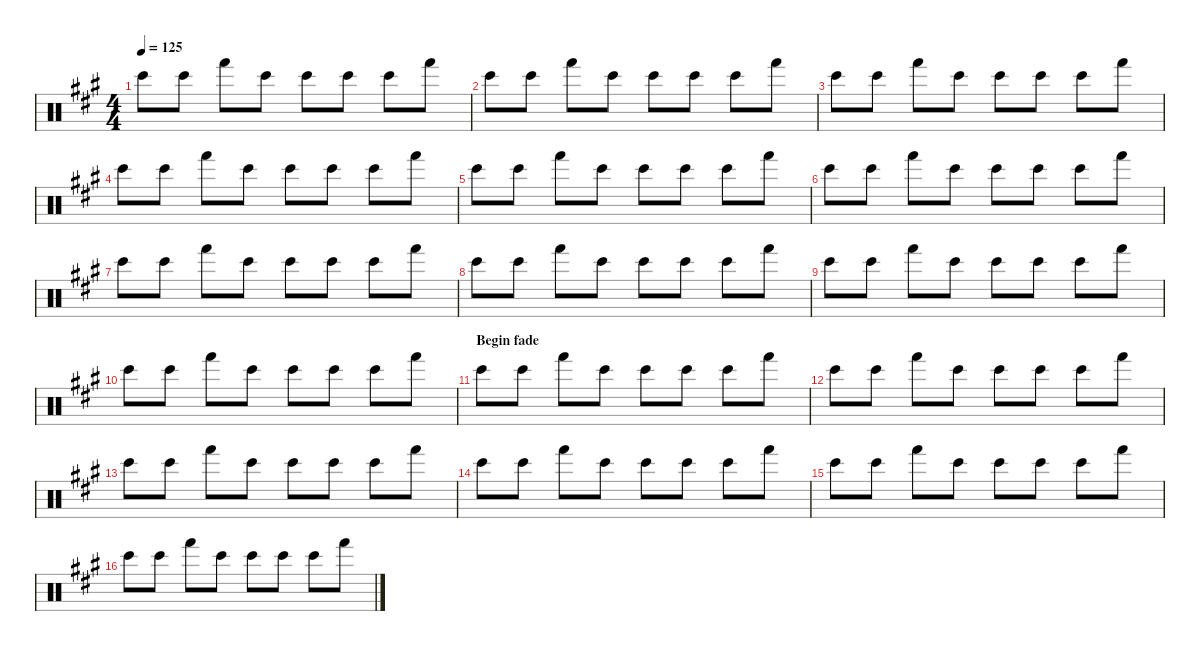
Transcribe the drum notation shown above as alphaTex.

\defaultSystemsLayout 4
\hideDynamics
\bracketExtendMode nobrackets
\singleTrackTrackNamePolicy hidden
\multiTrackTrackNamePolicy hidden
\otherSystemsTrackNameOrientation horizontal
\track ("Percussion" "drm.") {instrument percussion}
\staff {score}
\articulation defaults
\ts (4 4)
\tempo 125
\clef neutral
\ks a "Bongo High (hit)"{acc forcenatural}.8{dy f beam Down} "Bongo High (hit)"{acc forcenatural}.8{beam Down} "Hand (hit)"{acc forcenatural}.8{beam Down} "Bongo High (hit)"{acc forcenatural}.8{beam Down} "Bongo High (hit)"{acc forcenatural}.8{beam Down} "Bongo High (hit)"{acc forcenatural}.8{beam Down} "Bongo High (hit)"{acc forcenatural}.8{beam Down} "Hand (hit)"{acc forcenatural}.8{beam Down}
|
"Bongo High (hit)"{acc forcenatural}.8{beam Down} "Bongo High (hit)"{acc forcenatural}.8{beam Down} "Hand (hit)"{acc forcenatural}.8{beam Down} "Bongo High (hit)"{acc forcenatural}.8{beam Down} "Bongo High (hit)"{acc forcenatural}.8{beam Down} "Bongo High (hit)"{acc forcenatural}.8{beam Down} "Bongo High (hit)"{acc forcenatural}.8{beam Down} "Hand (hit)"{acc forcenatural}.8{beam Down} |
"Bongo High (hit)"{acc forcenatural}.8{beam Down} "Bongo High (hit)"{acc forcenatural}.8{beam Down} "Hand (hit)"{acc forcenatural}.8{beam Down} "Bongo High (hit)"{acc forcenatural}.8{beam Down} "Bongo High (hit)"{acc forcenatural}.8{beam Down} "Bongo High (hit)"{acc forcenatural}.8{beam Down} "Bongo High (hit)"{acc forcenatural}.8{beam Down} "Hand (hit)"{acc forcenatural}.8{beam Down} |
"Bongo High (hit)"{acc forcenatural}.8{beam Down} "Bongo High (hit)"{acc forcenatural}.8{beam Down} "Hand (hit)"{acc forcenatural}.8{beam Down} "Bongo High (hit)"{acc forcenatural}.8{beam Down} "Bongo High (hit)"{acc forcenatural}.8{beam Down} "Bongo High (hit)"{acc forcenatural}.8{beam Down} "Bongo High (hit)"{acc forcenatural}.8{beam Down} "Hand (hit)"{acc forcenatural}.8{beam Down} |
"Bongo High (hit)"{acc forcenatural}.8{beam Down} "Bongo High (hit)"{acc forcenatural}.8{beam Down} "Hand (hit)"{acc forcenatural}.8{beam Down} "Bongo High (hit)"{acc forcenatural}.8{beam Down} "Bongo High (hit)"{acc forcenatural}.8{beam Down} "Bongo High (hit)"{acc forcenatural}.8{beam Down} "Bongo High (hit)"{acc forcenatural}.8{beam Down} "Hand (hit)"{acc forcenatural}.8{beam Down} |
"Bongo High (hit)"{acc forcenatural}.8{beam Down} "Bongo High (hit)"{acc forcenatural}.8{beam Down} "Hand (hit)"{acc forcenatural}.8{beam Down} "Bongo High (hit)"{acc forcenatural}.8{beam Down} "Bongo High (hit)"{acc forcenatural}.8{beam Down} "Bongo High (hit)"{acc forcenatural}.8{beam Down} "Bongo High (hit)"{acc forcenatural}.8{beam Down} "Hand (hit)"{acc forcenatural}.8{beam Down} |
"Bongo High (hit)"{acc forcenatural}.8{beam Down} "Bongo High (hit)"{acc forcenatural}.8{beam Down} "Hand (hit)"{acc forcenatural}.8{beam Down} "Bongo High (hit)"{acc forcenatural}.8{beam Down} "Bongo High (hit)"{acc forcenatural}.8{beam Down} "Bongo High (hit)"{acc forcenatural}.8{beam Down} "Bongo High (hit)"{acc forcenatural}.8{beam Down} "Hand (hit)"{acc forcenatural}.8{beam Down} |
"Bongo High (hit)"{acc forcenatural}.8{beam Down} "Bongo High (hit)"{acc forcenatural}.8{beam Down} "Hand (hit)"{acc forcenatural}.8{beam Down} "Bongo High (hit)"{acc forcenatural}.8{beam Down} "Bongo High (hit)"{acc forcenatural}.8{beam Down} "Bongo High (hit)"{acc forcenatural}.8{beam Down} "Bongo High (hit)"{acc forcenatural}.8{beam Down} "Hand (hit)"{acc forcenatural}.8{beam Down} |
"Bongo High (hit)"{acc forcenatural}.8{beam Down} "Bongo High (hit)"{acc forcenatural}.8{beam Down} "Hand (hit)"{acc forcenatural}.8{beam Down} "Bongo High (hit)"{acc forcenatural}.8{beam Down} "Bongo High (hit)"{acc forcenatural}.8{beam Down} "Bongo High (hit)"{acc forcenatural}.8{beam Down} "Bongo High (hit)"{acc forcenatural}.8{beam Down} "Hand (hit)"{acc forcenatural}.8{beam Down} |
"Bongo High (hit)"{acc forcenatural}.8{beam Down} "Bongo High (hit)"{acc forcenatural}.8{beam Down} "Hand (hit)"{acc forcenatural}.8{beam Down} "Bongo High (hit)"{acc forcenatural}.8{beam Down} "Bongo High (hit)"{acc forcenatural}.8{beam Down} "Bongo High (hit)"{acc forcenatural}.8{beam Down} "Bongo High (hit)"{acc forcenatural}.8{beam Down} "Hand (hit)"{acc forcenatural}.8{beam Down} |
\section ("" "Begin fade")
"Bongo High (hit)"{acc forcenatural}.8{beam Down} "Bongo High (hit)"{acc forcenatural}.8{beam Down} "Hand (hit)"{acc forcenatural}.8{beam Down} "Bongo High (hit)"{acc forcenatural}.8{beam Down} "Bongo High (hit)"{acc forcenatural}.8{beam Down} "Bongo High (hit)"{acc forcenatural}.8{beam Down} "Bongo High (hit)"{acc forcenatural}.8{beam Down} "Hand (hit)"{acc forcenatural}.8{beam Down} |
"Bongo High (hit)"{acc forcenatural}.8{beam Down} "Bongo High (hit)"{acc forcenatural}.8{beam Down} "Hand (hit)"{acc forcenatural}.8{beam Down} "Bongo High (hit)"{acc forcenatural}.8{beam Down} "Bongo High (hit)"{acc forcenatural}.8{beam Down} "Bongo High (hit)"{acc forcenatural}.8{beam Down} "Bongo High (hit)"{acc forcenatural}.8{beam Down} "Hand (hit)"{acc forcenatural}.8{beam Down} |
"Bongo High (hit)"{acc forcenatural}.8{beam Down} "Bongo High (hit)"{acc forcenatural}.8{beam Down} "Hand (hit)"{acc forcenatural}.8{beam Down} "Bongo High (hit)"{acc forcenatural}.8{beam Down} "Bongo High (hit)"{acc forcenatural}.8{beam Down} "Bongo High (hit)"{acc forcenatural}.8{beam Down} "Bongo High (hit)"{acc forcenatural}.8{beam Down} "Hand (hit)"{acc forcenatural}.8{beam Down} |
"Bongo High (hit)"{acc forcenatural}.8{beam Down} "Bongo High (hit)"{acc forcenatural}.8{beam Down} "Hand (hit)"{acc forcenatural}.8{beam Down} "Bongo High (hit)"{acc forcenatural}.8{beam Down} "Bongo High (hit)"{acc forcenatural}.8{beam Down} "Bongo High (hit)"{acc forcenatural}.8{beam Down} "Bongo High (hit)"{acc forcenatural}.8{beam Down} "Hand (hit)"{acc forcenatural}.8{beam Down} |
"Bongo High (hit)"{acc forcenatural}.8{beam Down} "Bongo High (hit)"{acc forcenatural}.8{beam Down} "Hand (hit)"{acc forcenatural}.8{beam Down} "Bongo High (hit)"{acc forcenatural}.8{beam Down} "Bongo High (hit)"{acc forcenatural}.8{beam Down} "Bongo High (hit)"{acc forcenatural}.8{beam Down} "Bongo High (hit)"{acc forcenatural}.8{beam Down} "Hand (hit)"{acc forcenatural}.8{beam Down} |
"Bongo High (hit)"{acc forcenatural}.8{beam Down} "Bongo High (hit)"{acc forcenatural}.8{beam Down} "Hand (hit)"{acc forcenatural}.8{beam Down} "Bongo High (hit)"{acc forcenatural}.8{beam Down} "Bongo High (hit)"{acc forcenatural}.8{beam Down} "Bongo High (hit)"{acc forcenatural}.8{beam Down} "Bongo High (hit)"{acc forcenatural}.8{beam Down} "Hand (hit)"{acc forcenatural}.8{beam Down}
